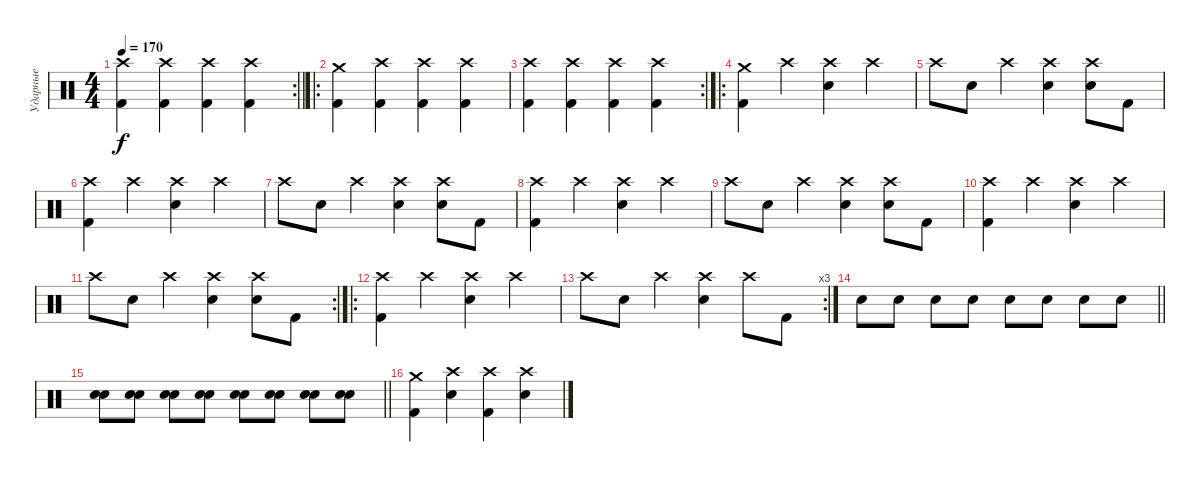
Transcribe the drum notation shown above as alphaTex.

\track ("Ударные" "Ударные") {instrument percussion}
\staff {score}
\articulation defaults
\rc 2
\ts (4 4)
\tempo 170
\clef neutral
\barLineRight lightlight
\ks c
("Crash high (hit)" "Kick (hit) 2").4{dy f} ("Crash high (hit)" "Kick (hit) 2").4 ("Crash high (hit)" "Kick (hit) 2").4 ("Crash high (hit)" "Kick (hit) 2").4 |
\ro
("Crash medium (hit)" "Kick (hit) 2").4 ("Crash high (hit)" "Kick (hit) 2").4 ("Crash high (hit)" "Kick (hit) 2").4 ("Crash high (hit)" "Kick (hit) 2").4 |
\rc 2
("Crash high (hit)" "Kick (hit) 2").4 ("Crash high (hit)" "Kick (hit) 2").4 ("Crash high (hit)" "Kick (hit) 2").4 ("Crash high (hit)" "Kick (hit) 2").4 |
\ro
("Crash medium (hit)" "Kick (hit) 2").4 "Crash high (hit)".4 ("Crash high (hit)" "Snare (hit) 2").4 "Crash high (hit)".4 |
"Crash high (hit)".8 "Snare (hit) 2".8 "Crash high (hit)".4 ("Crash high (hit)" "Snare (hit) 2").4 ("Crash high (hit)" "Snare (hit) 2").8 "Kick (hit) 2".8 |
("Crash high (hit)" "Kick (hit) 2").4 "Crash high (hit)".4 ("Crash high (hit)" "Snare (hit) 2").4 "Crash high (hit)".4 |
"Crash high (hit)".8 "Snare (hit) 2".8 "Crash high (hit)".4 ("Crash high (hit)" "Snare (hit) 2").4 ("Crash high (hit)" "Snare (hit) 2").8 "Kick (hit) 2".8 |
("Crash high (hit)" "Kick (hit) 2").4 "Crash high (hit)".4 ("Crash high (hit)" "Snare (hit) 2").4 "Crash high (hit)".4 |
"Crash high (hit)".8 "Snare (hit) 2".8 "Crash high (hit)".4 ("Crash high (hit)" "Snare (hit) 2").4 ("Crash high (hit)" "Snare (hit) 2").8 "Kick (hit) 2".8 |
("Crash high (hit)" "Kick (hit) 2").4 "Crash high (hit)".4 ("Crash high (hit)" "Snare (hit) 2").4 "Crash high (hit)".4 |
\rc 2 "Crash high (hit)".8 "Snare (hit) 2".8 "Crash high (hit)".4
("Crash high (hit)" "Snare (hit) 2").4 ("Crash high (hit)" "Snare (hit) 2").8 "Kick (hit) 2".8 |
\ro
("Crash high (hit)" "Kick (hit) 2").4 "Crash high (hit)".4 ("Crash high (hit)" "Snare (hit) 2").4 "Crash high (hit)".4 |
\rc 3 "Crash high (hit)".8 "Snare (hit) 2".8 "Crash high (hit)".4
("Crash high (hit)" "Snare (hit) 2").4 "Crash high (hit)".8 "Kick (hit) 2".8 |
\barLineRight lightlight "Snare (hit) 2".8 "Snare (hit) 2".8 "Snare (hit) 2".8 "Snare (hit) 2".8 "Snare (hit) 2".8 "Snare (hit) 2".8 "Snare (hit) 2".8 "Snare (hit) 2".8
|
\barLineRight lightlight
("Snare (hit) 2" "Electric Snare (hit)").8 ("Snare (hit) 2" "Electric Snare (hit)").8 ("Snare (hit) 2" "Electric Snare (hit)").8 ("Snare (hit) 2" "Electric Snare (hit)").8 ("Snare (hit) 2" "Electric Snare (hit)").8 ("Snare (hit) 2" "Electric Snare (hit)").8 ("Snare (hit) 2" "Electric Snare (hit)").8 ("Snare (hit) 2" "Electric Snare (hit)").8 |
("Crash medium (hit)" "Kick (hit) 2").4 ("Crash high (hit)" "Snare (hit) 2").4 ("Crash high (hit)" "Kick (hit) 2").4 ("Crash high (hit)" "Snare (hit) 2").4
